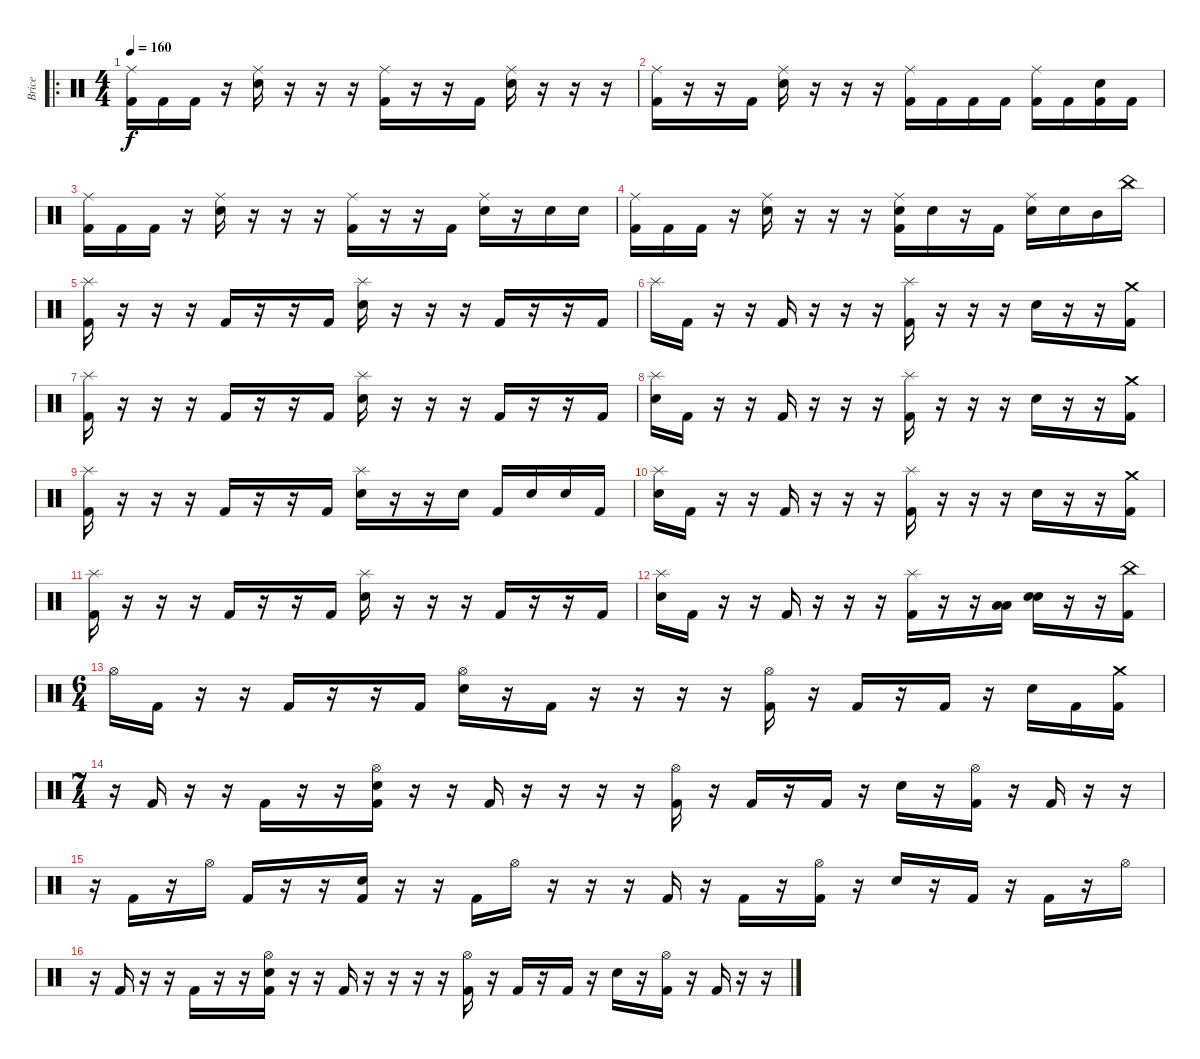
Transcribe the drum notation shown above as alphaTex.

\track ("Brice" "Brice") {instrument percussion}
\staff {score}
\articulation defaults
\ro
\ts (4 4)
\tempo 160
\clef neutral
\ks c
("Ride (middle)" "Kick (hit) 2").16{dy f} "Kick (hit) 2".16 "Kick (hit) 2".16 r.16 ("Ride (middle)" "Electric Snare (hit)").16 r.16 r.16 r.16 ("Ride (middle)" "Kick (hit) 2").16 r.16 r.16 "Kick (hit) 2".16 ("Ride (middle)" "Electric Snare (hit)").16 r.16 r.16 r.16 |
("Ride (middle)" "Kick (hit) 2").16 r.16 r.16 "Kick (hit) 2".16 ("Ride (middle)" "Electric Snare (hit)").16 r.16 r.16 r.16 ("Ride (middle)" "Kick (hit) 2").16 "Kick (hit) 2".16 "Kick (hit) 2".16 "Kick (hit) 2".16 ("Ride (middle)" "Kick (hit) 2").16 "Kick (hit) 2".16 ("Electric Snare (hit)" "Kick (hit) 2").16 "Kick (hit) 2".16 |
("Ride (middle)" "Kick (hit) 2").16 "Kick (hit) 2".16 "Kick (hit) 2".16 r.16 ("Ride (middle)" "Electric Snare (hit)").16 r.16 r.16 r.16 ("Ride (middle)" "Kick (hit) 2").16 r.16 r.16 "Kick (hit) 2".16 ("Ride (middle)" "Electric Snare (hit)").16 r.16 "Electric Snare (hit)".16 "Electric Snare (hit)".16 |
("Ride (middle)" "Kick (hit) 2").16 "Kick (hit) 2".16 "Kick (hit) 2".16 r.16 ("Ride (middle)" "Electric Snare (hit)").16 r.16 r.16 r.16 ("Ride (middle)" "Electric Snare (hit)" "Kick (hit) 2").16 "Electric Snare (hit)".16 r.16 "Kick (hit) 2".16 ("Ride (middle)" "Electric Snare (hit)").16 "Electric Snare (hit)".16 "Mid Tom (hit)".16 "China (hit)".16 |
("Splash (hit)" "Kick (hit) 2").16 r.16 r.16 r.16 "Kick (hit) 2".16 r.16 r.16 "Kick (hit) 2".16 ("Splash (hit)" "Electric Snare (hit)").16 r.16 r.16 r.16 "Kick (hit) 2".16 r.16 r.16 "Kick (hit) 2".16 |
"Splash (hit)".16 "Kick (hit) 2".16 r.16 r.16 "Kick (hit) 2".16 r.16 r.16 r.16 ("Splash (hit)" "Kick (hit) 2").16 r.16 r.16 r.16 "Electric Snare (hit)".16 r.16 r.16 ("Crash medium (hit)" "Kick (hit) 2").16 |
("Splash (hit)" "Kick (hit) 2").16 r.16 r.16 r.16 "Kick (hit) 2".16 r.16 r.16 "Kick (hit) 2".16 ("Splash (hit)" "Electric Snare (hit)").16 r.16 r.16 r.16 "Kick (hit) 2".16 r.16 r.16 "Kick (hit) 2".16 |
("Splash (hit)" "Electric Snare (hit)").16 "Kick (hit) 2".16 r.16 r.16 "Kick (hit) 2".16 r.16 r.16 r.16 ("Splash (hit)" "Kick (hit) 2").16 r.16 r.16 r.16 "Electric Snare (hit)".16 r.16 r.16 ("Crash medium (hit)" "Kick (hit) 2").16 |
("Splash (hit)" "Kick (hit) 2").16 r.16 r.16 r.16 "Kick (hit) 2".16 r.16 r.16 "Kick (hit) 2".16 ("Splash (hit)" "Electric Snare (hit)").16 r.16 r.16 "Electric Snare (hit)".16 "Kick (hit) 2".16 "Electric Snare (hit)".16 "Electric Snare (hit)".16 "Kick (hit) 2".16 |
("Splash (hit)" "Electric Snare (hit)").16 "Kick (hit) 2".16 r.16 r.16 "Kick (hit) 2".16 r.16 r.16 r.16 ("Splash (hit)" "Kick (hit) 2").16 r.16 r.16 r.16 "Electric Snare (hit)".16 r.16 r.16 ("Crash medium (hit)" "Kick (hit) 2").16 |
("Splash (hit)" "Kick (hit) 2").16 r.16 r.16 r.16 "Kick (hit) 2".16 r.16 r.16 "Kick (hit) 2".16 ("Splash (hit)" "Electric Snare (hit)").16 r.16 r.16 r.16 "Kick (hit) 2".16 r.16 r.16 "Kick (hit) 2".16 |
("Splash (hit)" "Electric Snare (hit)").16 "Kick (hit) 2".16 r.16 r.16 "Kick (hit) 2".16 r.16 r.16 r.16 ("Splash (hit)" "Kick (hit) 2").16 r.16 r.16 ("Low Tom (hit)" "Low Tom (hit)").16 ("Electric Snare (hit)" "Electric Snare (hit)").16 r.16 r.16 ("China (hit)" "Kick (hit) 2").16 |
\ts (6 4)
"Hi-Hat (open)".16 "Kick (hit) 2".16 r.16 r.16 "Kick (hit) 2".16 r.16 r.16 "Kick (hit) 2".16 ("Hi-Hat (open)" "Electric Snare (hit)").16 r.16 "Kick (hit) 2".16 r.16 r.16 r.16 r.16 ("Hi-Hat (open)" "Kick (hit) 2").16 r.16 "Kick (hit) 2".16 r.16 "Kick (hit) 2".16 r.16 "Electric Snare (hit)".16 "Kick (hit) 2".16 ("Crash medium (hit)" "Kick (hit) 2").16 |
\ts (7 4)
r.16 "Kick (hit) 2".16 r.16 r.16 "Kick (hit) 2".16 r.16 r.16 ("Hi-Hat (open)" "Electric Snare (hit)" "Kick (hit) 2").16 r.16 r.16 "Kick (hit) 2".16 r.16 r.16 r.16 r.16 ("Hi-Hat (open)" "Kick (hit) 2").16 r.16 "Kick (hit) 2".16 r.16 "Kick (hit) 2".16 r.16 "Electric Snare (hit)".16 r.16 ("Hi-Hat (open)" "Kick (hit) 2").16 r.16 "Kick (hit) 2".16 r.16 r.16 |
r.16 "Kick (hit) 2".16 r.16 "Hi-Hat (open)".16 "Kick (hit) 2".16 r.16 r.16 ("Electric Snare (hit)" "Kick (hit) 2").16 r.16 r.16 "Kick (hit) 2".16 "Hi-Hat (open)".16 r.16 r.16 r.16 "Kick (hit) 2".16 r.16 "Kick (hit) 2".16 r.16 ("Hi-Hat (open)" "Kick (hit) 2").16 r.16 "Electric Snare (hit)".16 r.16 "Kick (hit) 2".16 r.16 "Kick (hit) 2".16 r.16 "Hi-Hat (open)".16 |
r.16 "Kick (hit) 2".16 r.16 r.16 "Kick (hit) 2".16 r.16 r.16 ("Hi-Hat (open)" "Electric Snare (hit)" "Kick (hit) 2").16 r.16 r.16 "Kick (hit) 2".16 r.16 r.16 r.16 r.16 ("Hi-Hat (open)" "Kick (hit) 2").16 r.16 "Kick (hit) 2".16 r.16 "Kick (hit) 2".16 r.16 "Electric Snare (hit)".16 r.16 ("Hi-Hat (open)" "Kick (hit) 2").16 r.16 "Kick (hit) 2".16 r.16 r.16
